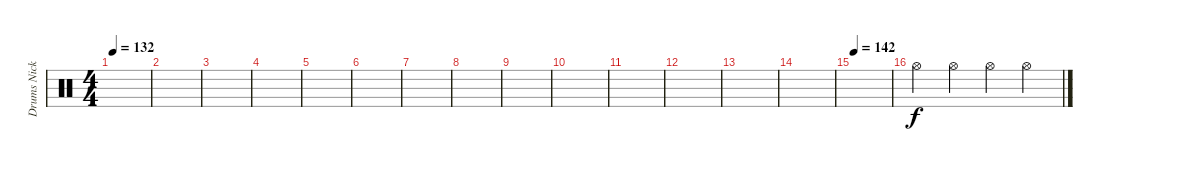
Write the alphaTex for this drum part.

\track ("Drums Nicko McBrain" "Drums Nick") {instrument percussion}
\staff {score}
\articulation defaults
\ts (4 4)
\tempo 132
\clef neutral
\ks c
|
|
|
|
|
|
|
|
|
|
|
|
|
|
\tempo 142
|
"Hi-Hat (open)".4 "Hi-Hat (open)".4 "Hi-Hat (open)".4 "Hi-Hat (open)".4
